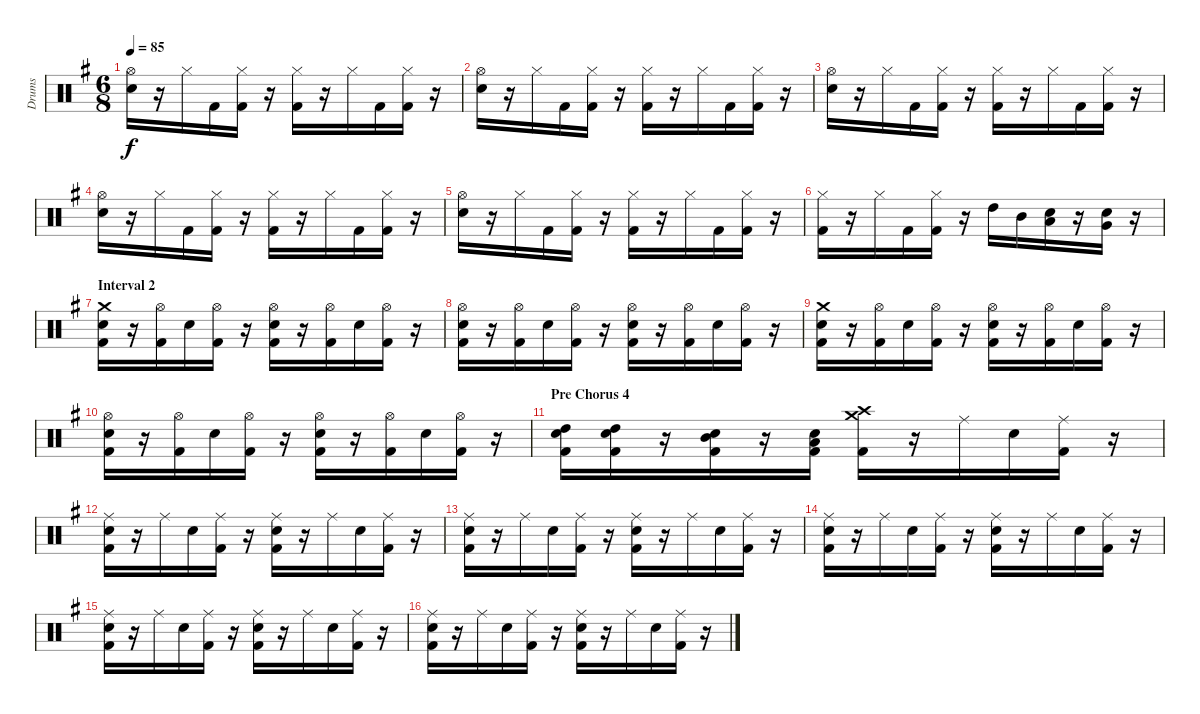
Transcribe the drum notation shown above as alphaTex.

\track ("Drums" "Drums") {instrument percussion}
\staff {score}
\articulation defaults
\ts (6 8)
\tempo 85
\clef neutral
\ks eminor
("Hi-Hat (open)" "Electric Snare (hit)").16{dy f} r.16 "Hi-Hat (closed)".16 "Kick (hit) 2".16 ("Hi-Hat (closed)" "Kick (hit) 2").16 r.16 ("Hi-Hat (closed)" "Kick (hit) 2").16 r.16 "Hi-Hat (closed)".16 "Kick (hit) 2".16 ("Hi-Hat (closed)" "Kick (hit) 2").16 r.16 |
("Hi-Hat (open)" "Electric Snare (hit)").16 r.16 "Hi-Hat (closed)".16 "Kick (hit) 2".16 ("Hi-Hat (closed)" "Kick (hit) 2").16 r.16 ("Hi-Hat (closed)" "Kick (hit) 2").16 r.16 "Hi-Hat (closed)".16 "Kick (hit) 2".16 ("Hi-Hat (closed)" "Kick (hit) 2").16 r.16 |
("Hi-Hat (open)" "Electric Snare (hit)").16 r.16 "Hi-Hat (closed)".16 "Kick (hit) 2".16 ("Hi-Hat (closed)" "Kick (hit) 2").16 r.16 ("Hi-Hat (closed)" "Kick (hit) 2").16 r.16 "Hi-Hat (closed)".16 "Kick (hit) 2".16 ("Hi-Hat (closed)" "Kick (hit) 2").16 r.16 |
("Hi-Hat (open)" "Electric Snare (hit)").16 r.16 "Hi-Hat (closed)".16 "Kick (hit) 2".16 ("Hi-Hat (closed)" "Kick (hit) 2").16 r.16 ("Hi-Hat (closed)" "Kick (hit) 2").16 r.16 "Hi-Hat (closed)".16 "Kick (hit) 2".16 ("Hi-Hat (closed)" "Kick (hit) 2").16 r.16 |
("Hi-Hat (open)" "Electric Snare (hit)").16 r.16 "Hi-Hat (closed)".16 "Kick (hit) 2".16 ("Hi-Hat (closed)" "Kick (hit) 2").16 r.16 ("Hi-Hat (closed)" "Kick (hit) 2").16 r.16 "Hi-Hat (closed)".16 "Kick (hit) 2".16 ("Hi-Hat (closed)" "Kick (hit) 2").16 r.16 |
("Hi-Hat (closed)" "Kick (hit) 2").16 r.16 "Hi-Hat (closed)".16 "Kick (hit) 2".16 ("Hi-Hat (closed)" "Kick (hit) 2").16 r.16 "High Tom (hit)".16 "Mid Tom (hit)".16 ("Electric Snare (hit)" "Low Tom (hit)").16 r.16 ("Electric Snare (hit)" "Very Low Tom (hit)").16 r.16 |
\section ("" "Interval 2")
("Crash medium (hit)" "Electric Snare (hit)" "Kick (hit) 2").16 r.16 ("Hi-Hat (open)" "Kick (hit) 2").16 "Electric Snare (hit)".16 ("Hi-Hat (open)" "Kick (hit) 2").16 r.16 ("Hi-Hat (open)" "Electric Snare (hit)" "Kick (hit) 2").16 r.16 ("Hi-Hat (open)" "Kick (hit) 2").16 "Electric Snare (hit)".16 ("Hi-Hat (open)" "Kick (hit) 2").16 r.16 |
("Hi-Hat (open)" "Electric Snare (hit)" "Kick (hit) 2").16 r.16 ("Hi-Hat (open)" "Kick (hit) 2").16 "Electric Snare (hit)".16 ("Hi-Hat (open)" "Kick (hit) 2").16 r.16 ("Hi-Hat (open)" "Electric Snare (hit)" "Kick (hit) 2").16 r.16 ("Hi-Hat (open)" "Kick (hit) 2").16 "Electric Snare (hit)".16 ("Hi-Hat (open)" "Kick (hit) 2").16 r.16 |
("Crash medium (hit)" "Electric Snare (hit)" "Kick (hit) 2").16 r.16 ("Hi-Hat (open)" "Kick (hit) 2").16 "Electric Snare (hit)".16 ("Hi-Hat (open)" "Kick (hit) 2").16 r.16 ("Hi-Hat (open)" "Electric Snare (hit)" "Kick (hit) 2").16 r.16 ("Hi-Hat (open)" "Kick (hit) 2").16 "Electric Snare (hit)".16 ("Hi-Hat (open)" "Kick (hit) 2").16 r.16 |
("Hi-Hat (open)" "Electric Snare (hit)" "Kick (hit) 2").16 r.16 ("Hi-Hat (open)" "Kick (hit) 2").16 "Electric Snare (hit)".16 ("Hi-Hat (open)" "Kick (hit) 2").16 r.16 ("Hi-Hat (open)" "Electric Snare (hit)" "Kick (hit) 2").16 r.16 ("Hi-Hat (open)" "Kick (hit) 2").16 "Electric Snare (hit)".16 ("Hi-Hat (open)" "Kick (hit) 2").16 r.16 |
\section ("" "Pre Chorus 4")
("High Tom (hit)" "Electric Snare (hit)" "Kick (hit) 2").16 ("High Tom (hit)" "Electric Snare (hit)" "Kick (hit) 2").16 r.16 ("Mid Tom (hit)" "Electric Snare (hit)" "Kick (hit) 2").16 r.16 ("Electric Snare (hit)" "Low Tom (hit)" "Kick (hit) 2").16 ("Crash medium (hit)" "Crash high (hit)" "Kick (hit) 2").16 r.16 "Ride (middle)".16 "Electric Snare (hit)".16 ("Ride (middle)" "Kick (hit) 2").16 r.16 |
("Ride (middle)" "Electric Snare (hit)" "Kick (hit) 2").16 r.16 "Ride (middle)".16 "Electric Snare (hit)".16 ("Ride (middle)" "Kick (hit) 2").16 r.16 ("Ride (middle)" "Electric Snare (hit)" "Kick (hit) 2").16 r.16 "Ride (middle)".16 "Electric Snare (hit)".16 ("Ride (middle)" "Kick (hit) 2").16 r.16 |
("Ride (middle)" "Electric Snare (hit)" "Kick (hit) 2").16 r.16 "Ride (middle)".16 "Electric Snare (hit)".16 ("Ride (middle)" "Kick (hit) 2").16 r.16 ("Ride (middle)" "Electric Snare (hit)" "Kick (hit) 2").16 r.16 "Ride (middle)".16 "Electric Snare (hit)".16 ("Ride (middle)" "Kick (hit) 2").16 r.16 |
("Ride (middle)" "Electric Snare (hit)" "Kick (hit) 2").16 r.16 "Ride (middle)".16 "Electric Snare (hit)".16 ("Ride (middle)" "Kick (hit) 2").16 r.16 ("Ride (middle)" "Electric Snare (hit)" "Kick (hit) 2").16 r.16 "Ride (middle)".16 "Electric Snare (hit)".16 ("Ride (middle)" "Kick (hit) 2").16 r.16 |
("Ride (middle)" "Electric Snare (hit)" "Kick (hit) 2").16 r.16 "Ride (middle)".16 "Electric Snare (hit)".16 ("Ride (middle)" "Kick (hit) 2").16 r.16 ("Ride (middle)" "Electric Snare (hit)" "Kick (hit) 2").16 r.16 "Ride (middle)".16 "Electric Snare (hit)".16 ("Ride (middle)" "Kick (hit) 2").16 r.16 |
("Ride (middle)" "Electric Snare (hit)" "Kick (hit) 2").16 r.16 "Ride (middle)".16 "Electric Snare (hit)".16 ("Ride (middle)" "Kick (hit) 2").16 r.16 ("Ride (middle)" "Electric Snare (hit)" "Kick (hit) 2").16 r.16 "Ride (middle)".16 "Electric Snare (hit)".16 ("Ride (middle)" "Kick (hit) 2").16 r.16
